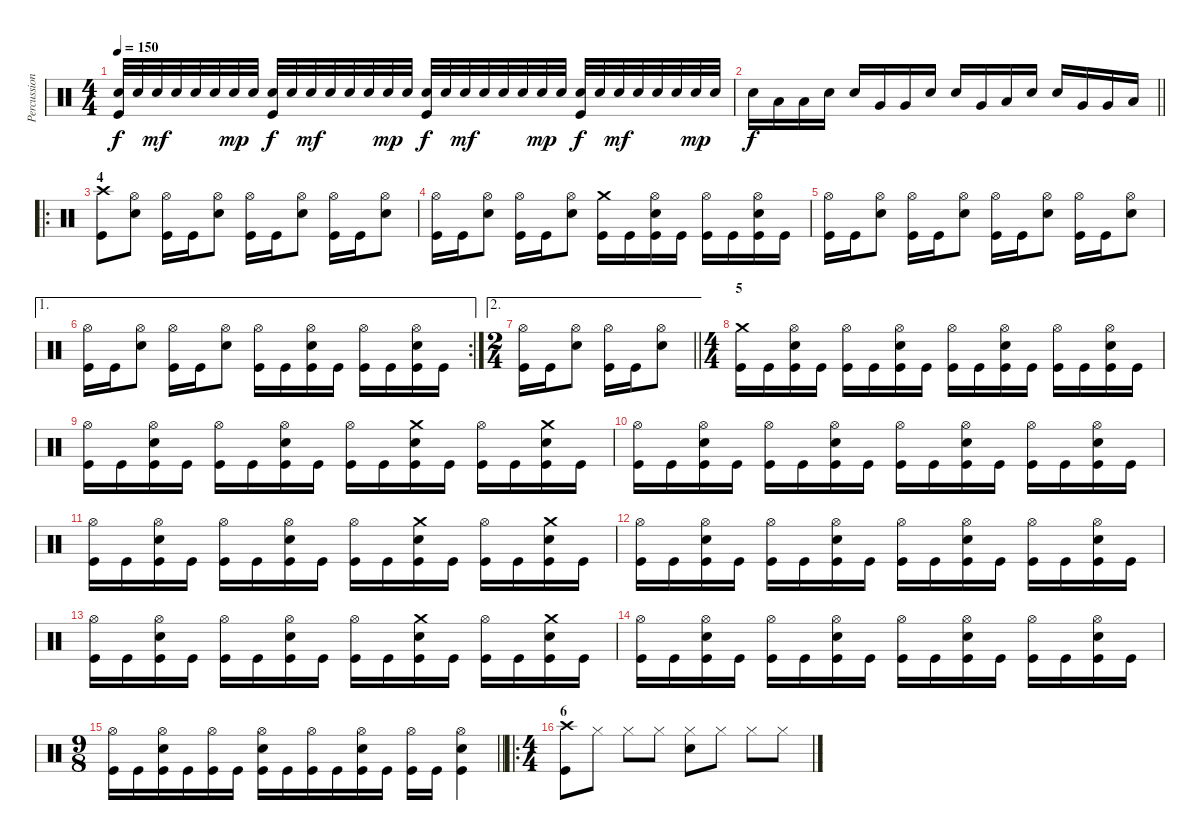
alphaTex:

\track ("Percussion" "Percussion") {instrument percussion}
\staff {score}
\articulation defaults
\ts (4 4)
\tempo 150
\clef neutral
\ks c
("Snare (hit) 2" "Kick (hit)").32{dy f} "Snare (hit) 2".32 "Snare (hit) 2".32{dy mf} "Snare (hit) 2".32 "Snare (hit) 2".32 "Snare (hit) 2".32 "Snare (hit) 2".32{dy mp} "Snare (hit) 2".32 ("Snare (hit) 2" "Kick (hit)").32{dy f} "Snare (hit) 2".32 "Snare (hit) 2".32{dy mf} "Snare (hit) 2".32 "Snare (hit) 2".32 "Snare (hit) 2".32 "Snare (hit) 2".32{dy mp} "Snare (hit) 2".32 ("Snare (hit) 2" "Kick (hit)").32{dy f} "Snare (hit) 2".32 "Snare (hit) 2".32{dy mf} "Snare (hit) 2".32 "Snare (hit) 2".32 "Snare (hit) 2".32 "Snare (hit) 2".32{dy mp} "Snare (hit) 2".32 ("Snare (hit) 2" "Kick (hit)").32{dy f} "Snare (hit) 2".32 "Snare (hit) 2".32{dy mf} "Snare (hit) 2".32 "Snare (hit) 2".32 "Snare (hit) 2".32 "Snare (hit) 2".32{dy mp} "Snare (hit) 2".32 |
\barLineRight lightlight "Snare (hit) 2".16{dy f} "Low Tom (hit)".16 "Low Tom (hit)".16 "Snare (hit) 2".16 "Snare (hit) 2".16 "Very Low Tom (hit)".16 "Very Low Tom (hit)".16 "Snare (hit) 2".16 "Snare (hit) 2".16 "Very Low Tom (hit)".16 "Low Floor Tom (hit)".16 "Snare (hit) 2".16 "Snare (hit) 2".16 "Very Low Tom (hit)".16 "Very Low Tom (hit)".16 "Low Floor Tom (hit)".16
|
\ro
\section ("" "4")
("Crash high (hit)" "Kick (hit)").8 ("Hi-Hat (open)" "Snare (hit) 2").8 ("Hi-Hat (open)" "Kick (hit)").16 "Kick (hit)".16 ("Hi-Hat (open)" "Snare (hit) 2").8 ("Hi-Hat (open)" "Kick (hit)").16 "Kick (hit)".16 ("Hi-Hat (open)" "Snare (hit) 2").8 ("Hi-Hat (open)" "Kick (hit)").16 "Kick (hit)".16 ("Hi-Hat (open)" "Snare (hit) 2").8 |
("Hi-Hat (open)" "Kick (hit)").16 "Kick (hit)".16 ("Hi-Hat (open)" "Snare (hit) 2").8 ("Hi-Hat (open)" "Kick (hit)").16 "Kick (hit)".16 ("Hi-Hat (open)" "Snare (hit) 2").8 ("Crash medium (hit)" "Kick (hit)").16 "Kick (hit)".16 ("Hi-Hat (open)" "Snare (hit) 2" "Kick (hit)").16 "Kick (hit)".16 ("Hi-Hat (open)" "Kick (hit)").16 "Kick (hit)".16 ("Hi-Hat (open)" "Snare (hit) 2" "Kick (hit)").16 "Kick (hit)".16 |
("Hi-Hat (open)" "Kick (hit)").16 "Kick (hit)".16 ("Hi-Hat (open)" "Snare (hit) 2").8 ("Hi-Hat (open)" "Kick (hit)").16 "Kick (hit)".16 ("Hi-Hat (open)" "Snare (hit) 2").8 ("Hi-Hat (open)" "Kick (hit)").16 "Kick (hit)".16 ("Hi-Hat (open)" "Snare (hit) 2").8 ("Hi-Hat (open)" "Kick (hit)").16 "Kick (hit)".16 ("Hi-Hat (open)" "Snare (hit) 2").8 |
\ae 1
\rc 2
("Hi-Hat (open)" "Kick (hit)").16 "Kick (hit)".16 ("Hi-Hat (open)" "Snare (hit) 2").8 ("Hi-Hat (open)" "Kick (hit)").16 "Kick (hit)".16 ("Hi-Hat (open)" "Snare (hit) 2").8 ("Hi-Hat (open)" "Kick (hit)").16 "Kick (hit)".16 ("Hi-Hat (open)" "Snare (hit) 2" "Kick (hit)").16 "Kick (hit)".16 ("Hi-Hat (open)" "Kick (hit)").16 "Kick (hit)".16 ("Hi-Hat (open)" "Snare (hit) 2" "Kick (hit)").16 "Kick (hit)".16 |
\ae 2
\ts (2 4)
\barLineRight lightlight
("Hi-Hat (open)" "Kick (hit)").16 "Kick (hit)".16 ("Hi-Hat (open)" "Snare (hit) 2").8 ("Hi-Hat (open)" "Kick (hit)").16 "Kick (hit)".16 ("Hi-Hat (open)" "Snare (hit) 2").8 |
\ts (4 4)
\section ("" "5")
("Crash medium (hit)" "Kick (hit)").16 "Kick (hit)".16 ("Hi-Hat (open)" "Snare (hit) 2" "Kick (hit)").16 "Kick (hit)".16 ("Hi-Hat (open)" "Kick (hit)").16 "Kick (hit)".16 ("Hi-Hat (open)" "Snare (hit) 2" "Kick (hit)").16 "Kick (hit)".16 ("Hi-Hat (open)" "Kick (hit)").16 "Kick (hit)".16 ("Hi-Hat (open)" "Snare (hit) 2" "Kick (hit)").16 "Kick (hit)".16 ("Hi-Hat (open)" "Kick (hit)").16 "Kick (hit)".16 ("Hi-Hat (open)" "Snare (hit) 2" "Kick (hit)").16 "Kick (hit)".16 |
("Hi-Hat (open)" "Kick (hit)").16 "Kick (hit)".16 ("Hi-Hat (open)" "Snare (hit) 2" "Kick (hit)").16 "Kick (hit)".16 ("Hi-Hat (open)" "Kick (hit)").16 "Kick (hit)".16 ("Hi-Hat (open)" "Snare (hit) 2" "Kick (hit)").16 "Kick (hit)".16 ("Hi-Hat (open)" "Kick (hit)").16 "Kick (hit)".16 ("Crash medium (hit)" "Snare (hit) 2" "Kick (hit)").16 "Kick (hit)".16 ("Hi-Hat (open)" "Kick (hit)").16 "Kick (hit)".16 ("Crash medium (hit)" "Snare (hit) 2" "Kick (hit)").16 "Kick (hit)".16 |
("Hi-Hat (open)" "Kick (hit)").16 "Kick (hit)".16 ("Hi-Hat (open)" "Snare (hit) 2" "Kick (hit)").16 "Kick (hit)".16 ("Hi-Hat (open)" "Kick (hit)").16 "Kick (hit)".16 ("Hi-Hat (open)" "Snare (hit) 2" "Kick (hit)").16 "Kick (hit)".16 ("Hi-Hat (open)" "Kick (hit)").16 "Kick (hit)".16 ("Hi-Hat (open)" "Snare (hit) 2" "Kick (hit)").16 "Kick (hit)".16 ("Hi-Hat (open)" "Kick (hit)").16 "Kick (hit)".16 ("Hi-Hat (open)" "Snare (hit) 2" "Kick (hit)").16 "Kick (hit)".16 |
("Hi-Hat (open)" "Kick (hit)").16 "Kick (hit)".16 ("Hi-Hat (open)" "Snare (hit) 2" "Kick (hit)").16 "Kick (hit)".16 ("Hi-Hat (open)" "Kick (hit)").16 "Kick (hit)".16 ("Hi-Hat (open)" "Snare (hit) 2" "Kick (hit)").16 "Kick (hit)".16 ("Hi-Hat (open)" "Kick (hit)").16 "Kick (hit)".16 ("Crash medium (hit)" "Snare (hit) 2" "Kick (hit)").16 "Kick (hit)".16 ("Hi-Hat (open)" "Kick (hit)").16 "Kick (hit)".16 ("Crash medium (hit)" "Snare (hit) 2" "Kick (hit)").16 "Kick (hit)".16 |
("Hi-Hat (open)" "Kick (hit)").16 "Kick (hit)".16 ("Hi-Hat (open)" "Snare (hit) 2" "Kick (hit)").16 "Kick (hit)".16 ("Hi-Hat (open)" "Kick (hit)").16 "Kick (hit)".16 ("Hi-Hat (open)" "Snare (hit) 2" "Kick (hit)").16 "Kick (hit)".16 ("Hi-Hat (open)" "Kick (hit)").16 "Kick (hit)".16 ("Hi-Hat (open)" "Snare (hit) 2" "Kick (hit)").16 "Kick (hit)".16 ("Hi-Hat (open)" "Kick (hit)").16 "Kick (hit)".16 ("Hi-Hat (open)" "Snare (hit) 2" "Kick (hit)").16 "Kick (hit)".16 |
("Hi-Hat (open)" "Kick (hit)").16 "Kick (hit)".16 ("Hi-Hat (open)" "Snare (hit) 2" "Kick (hit)").16 "Kick (hit)".16 ("Hi-Hat (open)" "Kick (hit)").16 "Kick (hit)".16 ("Hi-Hat (open)" "Snare (hit) 2" "Kick (hit)").16 "Kick (hit)".16 ("Hi-Hat (open)" "Kick (hit)").16 "Kick (hit)".16 ("Crash medium (hit)" "Snare (hit) 2" "Kick (hit)").16 "Kick (hit)".16 ("Hi-Hat (open)" "Kick (hit)").16 "Kick (hit)".16 ("Crash medium (hit)" "Snare (hit) 2" "Kick (hit)").16 "Kick (hit)".16 |
("Hi-Hat (open)" "Kick (hit)").16 "Kick (hit)".16 ("Hi-Hat (open)" "Snare (hit) 2" "Kick (hit)").16 "Kick (hit)".16 ("Hi-Hat (open)" "Kick (hit)").16 "Kick (hit)".16 ("Hi-Hat (open)" "Snare (hit) 2" "Kick (hit)").16 "Kick (hit)".16 ("Hi-Hat (open)" "Kick (hit)").16 "Kick (hit)".16 ("Hi-Hat (open)" "Snare (hit) 2" "Kick (hit)").16 "Kick (hit)".16 ("Hi-Hat (open)" "Kick (hit)").16 "Kick (hit)".16 ("Hi-Hat (open)" "Snare (hit) 2" "Kick (hit)").16 "Kick (hit)".16 |
\ts (9 8)
\barLineRight lightlight
("Hi-Hat (open)" "Kick (hit)").16 "Kick (hit)".16 ("Hi-Hat (open)" "Snare (hit) 2" "Kick (hit)").16 "Kick (hit)".16 ("Hi-Hat (open)" "Kick (hit)").16 "Kick (hit)".16 ("Hi-Hat (open)" "Snare (hit) 2" "Kick (hit)").16 "Kick (hit)".16 ("Hi-Hat (open)" "Kick (hit)").16 "Kick (hit)".16 ("Hi-Hat (open)" "Snare (hit) 2" "Kick (hit)").16 "Kick (hit)".16 ("Hi-Hat (open)" "Kick (hit)").16 "Kick (hit)".16 ("Hi-Hat (open)" "Snare (hit) 2" "Kick (hit)").4 |
\ro
\ts (4 4)
\section ("" "6")
("Crash high (hit)" "Kick (hit)").8 "Hi-Hat (closed)".8 "Hi-Hat (closed)".8 "Hi-Hat (closed)".8 ("Hi-Hat (closed)" "Snare (hit) 2").8 "Hi-Hat (closed)".8 "Hi-Hat (closed)".8 "Hi-Hat (closed)".8
